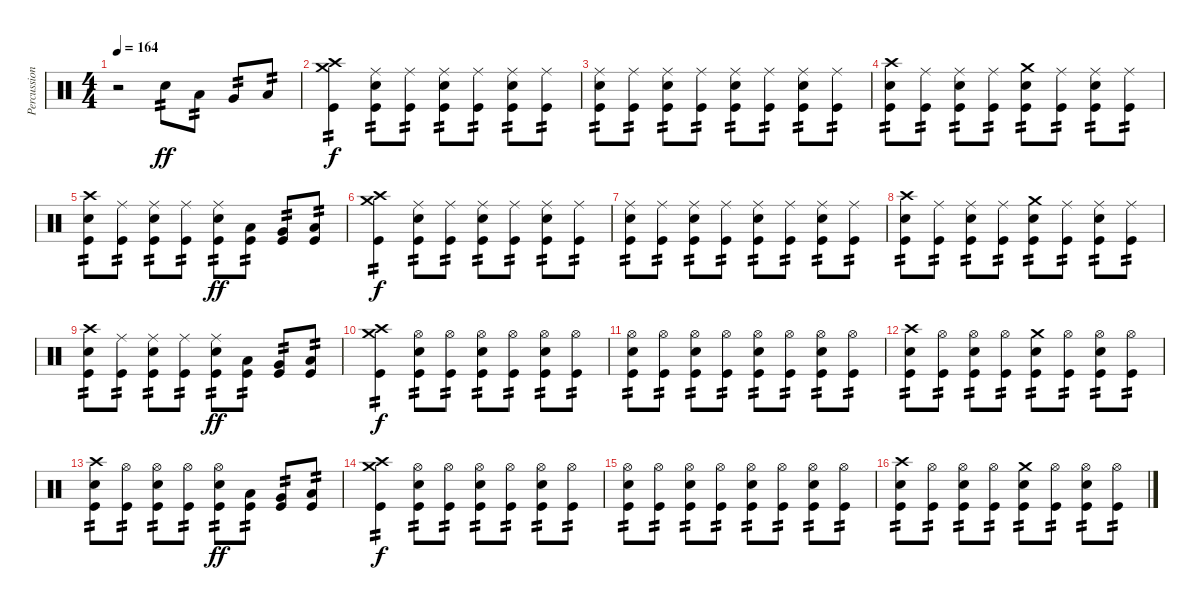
\track ("Percussion" "Percussion") {instrument percussion}
\staff {score}
\articulation defaults
\ts (4 4)
\tempo 164
\clef neutral
\ks c
r.2{dy ff} "Electric Snare (hit)".8{tp 2} "Low Tom (hit)".8{tp 2} "Very Low Tom (hit)".8{tp 2} "Low Floor Tom (hit)".8{tp 2} |
("Crash medium (hit)" "Crash high (hit)" "Kick (hit)").4{tp 2 dy f} ("Ride (middle)" "Electric Snare (hit)" "Kick (hit)").8{tp 2} ("Ride (middle)" "Kick (hit)").8{tp 2} ("Ride (middle)" "Electric Snare (hit)" "Kick (hit)").8{tp 2} ("Ride (middle)" "Kick (hit)").8{tp 2} ("Ride (middle)" "Electric Snare (hit)" "Kick (hit)").8{tp 2} ("Ride (middle)" "Kick (hit)").8{tp 2} |
("Ride (middle)" "Electric Snare (hit)" "Kick (hit)").8{tp 2} ("Ride (middle)" "Kick (hit)").8{tp 2} ("Ride (middle)" "Electric Snare (hit)" "Kick (hit)").8{tp 2} ("Ride (middle)" "Kick (hit)").8{tp 2} ("Ride (middle)" "Electric Snare (hit)" "Kick (hit)").8{tp 2} ("Ride (middle)" "Kick (hit)").8{tp 2} ("Ride (middle)" "Electric Snare (hit)" "Kick (hit)").8{tp 2} ("Ride (middle)" "Kick (hit)").8{tp 2} |
("Crash high (hit)" "Electric Snare (hit)" "Kick (hit)").8{tp 2} ("Ride (middle)" "Kick (hit)").8{tp 2} ("Ride (middle)" "Electric Snare (hit)" "Kick (hit)").8{tp 2} ("Ride (middle)" "Kick (hit)").8{tp 2} ("Crash medium (hit)" "Electric Snare (hit)" "Kick (hit)").8{tp 2} ("Ride (middle)" "Kick (hit)").8{tp 2} ("Ride (middle)" "Electric Snare (hit)" "Kick (hit)").8{tp 2} ("Ride (middle)" "Kick (hit)").8{tp 2} |
("Crash high (hit)" "Electric Snare (hit)" "Kick (hit)").8{tp 2} ("Ride (middle)" "Kick (hit)").8{tp 2} ("Ride (middle)" "Electric Snare (hit)" "Kick (hit)").8{tp 2} ("Ride (middle)" "Kick (hit)").8{tp 2} ("Ride (middle)" "Electric Snare (hit)" "Kick (hit)").8{tp 2 dy ff} ("Low Tom (hit)" "Kick (hit)").8{tp 2} ("Very Low Tom (hit)" "Kick (hit)").8{tp 2} ("Low Floor Tom (hit)" "Kick (hit)").8{tp 2} |
("Crash medium (hit)" "Crash high (hit)" "Kick (hit)").4{tp 2 dy f} ("Ride (middle)" "Electric Snare (hit)" "Kick (hit)").8{tp 2} ("Ride (middle)" "Kick (hit)").8{tp 2} ("Ride (middle)" "Electric Snare (hit)" "Kick (hit)").8{tp 2} ("Ride (middle)" "Kick (hit)").8{tp 2} ("Ride (middle)" "Electric Snare (hit)" "Kick (hit)").8{tp 2} ("Ride (middle)" "Kick (hit)").8{tp 2} |
("Ride (middle)" "Electric Snare (hit)" "Kick (hit)").8{tp 2} ("Ride (middle)" "Kick (hit)").8{tp 2} ("Ride (middle)" "Electric Snare (hit)" "Kick (hit)").8{tp 2} ("Ride (middle)" "Kick (hit)").8{tp 2} ("Ride (middle)" "Electric Snare (hit)" "Kick (hit)").8{tp 2} ("Ride (middle)" "Kick (hit)").8{tp 2} ("Ride (middle)" "Electric Snare (hit)" "Kick (hit)").8{tp 2} ("Ride (middle)" "Kick (hit)").8{tp 2} |
("Crash high (hit)" "Electric Snare (hit)" "Kick (hit)").8{tp 2} ("Ride (middle)" "Kick (hit)").8{tp 2} ("Ride (middle)" "Electric Snare (hit)" "Kick (hit)").8{tp 2} ("Ride (middle)" "Kick (hit)").8{tp 2} ("Crash medium (hit)" "Electric Snare (hit)" "Kick (hit)").8{tp 2} ("Ride (middle)" "Kick (hit)").8{tp 2} ("Ride (middle)" "Electric Snare (hit)" "Kick (hit)").8{tp 2} ("Ride (middle)" "Kick (hit)").8{tp 2} |
("Crash high (hit)" "Electric Snare (hit)" "Kick (hit)").8{tp 2} ("Ride (middle)" "Kick (hit)").8{tp 2} ("Ride (middle)" "Electric Snare (hit)" "Kick (hit)").8{tp 2} ("Ride (middle)" "Kick (hit)").8{tp 2} ("Ride (middle)" "Electric Snare (hit)" "Kick (hit)").8{tp 2 dy ff} ("Low Tom (hit)" "Kick (hit)").8{tp 2} ("Very Low Tom (hit)" "Kick (hit)").8{tp 2} ("Low Floor Tom (hit)" "Kick (hit)").8{tp 2} |
("Crash medium (hit)" "Crash high (hit)" "Kick (hit)").4{tp 2 dy f} ("Hi-Hat (open)" "Electric Snare (hit)" "Kick (hit)").8{tp 2} ("Hi-Hat (open)" "Kick (hit)").8{tp 2} ("Hi-Hat (open)" "Electric Snare (hit)" "Kick (hit)").8{tp 2} ("Hi-Hat (open)" "Kick (hit)").8{tp 2} ("Hi-Hat (open)" "Electric Snare (hit)" "Kick (hit)").8{tp 2} ("Hi-Hat (open)" "Kick (hit)").8{tp 2} |
("Hi-Hat (open)" "Electric Snare (hit)" "Kick (hit)").8{tp 2} ("Hi-Hat (open)" "Kick (hit)").8{tp 2} ("Hi-Hat (open)" "Electric Snare (hit)" "Kick (hit)").8{tp 2} ("Hi-Hat (open)" "Kick (hit)").8{tp 2} ("Hi-Hat (open)" "Electric Snare (hit)" "Kick (hit)").8{tp 2} ("Hi-Hat (open)" "Kick (hit)").8{tp 2} ("Hi-Hat (open)" "Electric Snare (hit)" "Kick (hit)").8{tp 2} ("Hi-Hat (open)" "Kick (hit)").8{tp 2} |
("Crash high (hit)" "Electric Snare (hit)" "Kick (hit)").8{tp 2} ("Hi-Hat (open)" "Kick (hit)").8{tp 2} ("Hi-Hat (open)" "Electric Snare (hit)" "Kick (hit)").8{tp 2} ("Hi-Hat (open)" "Kick (hit)").8{tp 2} ("Crash medium (hit)" "Electric Snare (hit)" "Kick (hit)").8{tp 2} ("Hi-Hat (open)" "Kick (hit)").8{tp 2} ("Hi-Hat (open)" "Electric Snare (hit)" "Kick (hit)").8{tp 2} ("Hi-Hat (open)" "Kick (hit)").8{tp 2} |
("Crash high (hit)" "Electric Snare (hit)" "Kick (hit)").8{tp 2} ("Hi-Hat (open)" "Kick (hit)").8{tp 2} ("Hi-Hat (open)" "Electric Snare (hit)" "Kick (hit)").8{tp 2} ("Hi-Hat (open)" "Kick (hit)").8{tp 2} ("Hi-Hat (open)" "Electric Snare (hit)" "Kick (hit)").8{tp 2 dy ff} ("Low Tom (hit)" "Kick (hit)").8{tp 2} ("Very Low Tom (hit)" "Kick (hit)").8{tp 2} ("Low Floor Tom (hit)" "Kick (hit)").8{tp 2} |
("Crash medium (hit)" "Crash high (hit)" "Kick (hit)").4{tp 2 dy f} ("Hi-Hat (open)" "Electric Snare (hit)" "Kick (hit)").8{tp 2} ("Hi-Hat (open)" "Kick (hit)").8{tp 2} ("Hi-Hat (open)" "Electric Snare (hit)" "Kick (hit)").8{tp 2} ("Hi-Hat (open)" "Kick (hit)").8{tp 2} ("Hi-Hat (open)" "Electric Snare (hit)" "Kick (hit)").8{tp 2} ("Hi-Hat (open)" "Kick (hit)").8{tp 2} |
("Hi-Hat (open)" "Electric Snare (hit)" "Kick (hit)").8{tp 2} ("Hi-Hat (open)" "Kick (hit)").8{tp 2} ("Hi-Hat (open)" "Electric Snare (hit)" "Kick (hit)").8{tp 2} ("Hi-Hat (open)" "Kick (hit)").8{tp 2} ("Hi-Hat (open)" "Electric Snare (hit)" "Kick (hit)").8{tp 2} ("Hi-Hat (open)" "Kick (hit)").8{tp 2} ("Hi-Hat (open)" "Electric Snare (hit)" "Kick (hit)").8{tp 2} ("Hi-Hat (open)" "Kick (hit)").8{tp 2} |
("Crash high (hit)" "Electric Snare (hit)" "Kick (hit)").8{tp 2} ("Hi-Hat (open)" "Kick (hit)").8{tp 2} ("Hi-Hat (open)" "Electric Snare (hit)" "Kick (hit)").8{tp 2} ("Hi-Hat (open)" "Kick (hit)").8{tp 2} ("Crash medium (hit)" "Electric Snare (hit)" "Kick (hit)").8{tp 2} ("Hi-Hat (open)" "Kick (hit)").8{tp 2} ("Hi-Hat (open)" "Electric Snare (hit)" "Kick (hit)").8{tp 2} ("Hi-Hat (open)" "Kick (hit)").8{tp 2}
